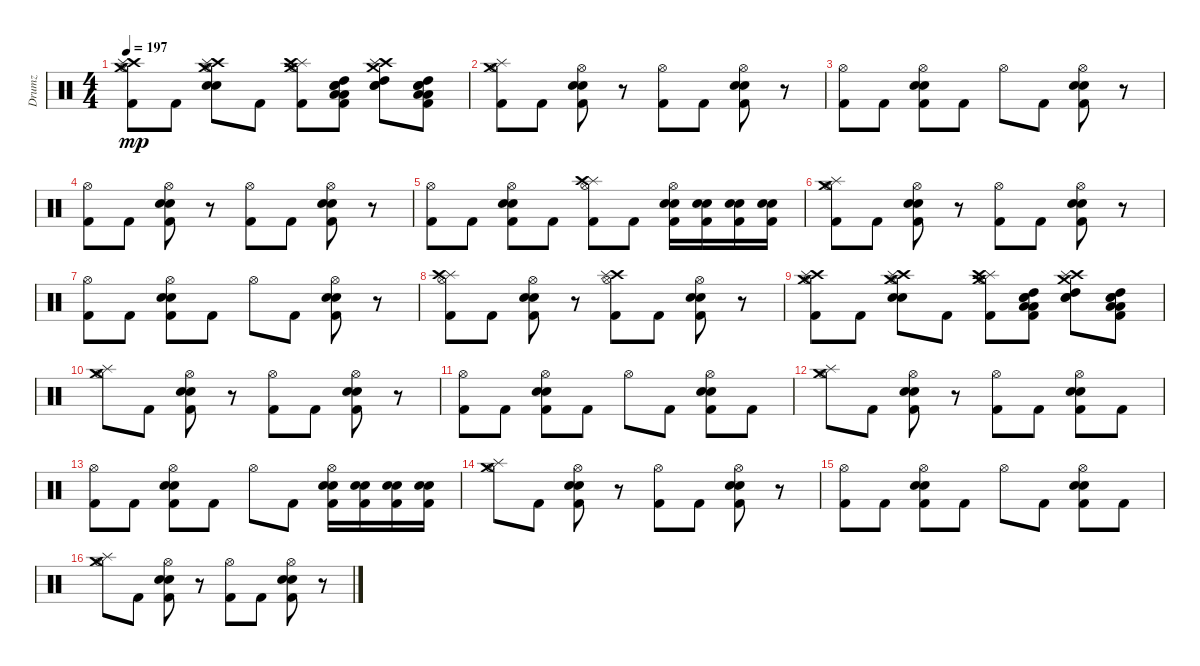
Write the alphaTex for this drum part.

\track ("Drumz" "Drumz") {instrument percussion}
\staff {score}
\articulation defaults
\ts (4 4)
\tempo 197
\clef neutral
\ks c
("Crash high (hit)" "Splash (hit)" "Crash medium (hit)" "Hi-Hat (open)" "Kick (hit) 2").8{dy mp} "Kick (hit) 2".8 ("Crash high (hit)" "Crash medium (hit)" "Splash (hit)" "Hi-Hat (open)" "Snare (hit) 2" "Electric Snare (hit)").8 "Kick (hit) 2".8 ("Kick (hit) 2" "Splash (hit)" "Crash high (hit)" "Crash medium (hit)" "Hi-Hat (open)").8 ("Snare (hit) 2" "Electric Snare (hit)" "Low Floor Tom (hit)" "High Tom (hit)" "Low Tom (hit)" "Kick (hit) 2").8 ("Crash high (hit)" "Crash medium (hit)" "Splash (hit)" "High Tom (hit)" "Snare (hit) 2" "Electric Snare (hit)").8 ("High Tom (hit)" "Low Floor Tom (hit)" "Electric Snare (hit)" "Snare (hit) 2" "Kick (hit) 2" "Low Tom (hit)").8 |
("Splash (hit)" "Crash medium (hit)" "Kick (hit) 2" "Hi-Hat (open)").8 "Kick (hit) 2".8 ("Kick (hit) 2" "Snare (hit) 2" "Electric Snare (hit)" "Hi-Hat (open)").8 r.8 ("Kick (hit) 2" "Hi-Hat (open)").8 "Kick (hit) 2".8 ("Kick (hit) 2" "Snare (hit) 2" "Electric Snare (hit)" "Hi-Hat (open)").8 r.8 |
("Hi-Hat (open)" "Kick (hit) 2").8 "Kick (hit) 2".8 ("Hi-Hat (open)" "Snare (hit) 2" "Electric Snare (hit)" "Kick (hit) 2").8 "Kick (hit) 2".8 "Hi-Hat (open)".8 "Kick (hit) 2".8 ("Hi-Hat (open)" "Snare (hit) 2" "Electric Snare (hit)" "Kick (hit) 2").8 r.8 |
("Kick (hit) 2" "Hi-Hat (open)").8 "Kick (hit) 2".8 ("Kick (hit) 2" "Snare (hit) 2" "Electric Snare (hit)" "Hi-Hat (open)").8 r.8 ("Kick (hit) 2" "Hi-Hat (open)").8 "Kick (hit) 2".8 ("Kick (hit) 2" "Snare (hit) 2" "Electric Snare (hit)" "Hi-Hat (open)").8 r.8 |
("Hi-Hat (open)" "Kick (hit) 2").8 "Kick (hit) 2".8 ("Hi-Hat (open)" "Snare (hit) 2" "Electric Snare (hit)" "Kick (hit) 2").8 "Kick (hit) 2".8 ("Kick (hit) 2" "Splash (hit)" "Crash high (hit)" "Hi-Hat (open)").8 "Kick (hit) 2".8 ("Kick (hit) 2" "Snare (hit) 2" "Electric Snare (hit)" "Hi-Hat (open)").16 ("Electric Snare (hit)" "Snare (hit) 2" "Kick (hit) 2").16 ("Snare (hit) 2" "Electric Snare (hit)" "Kick (hit) 2").16 ("Snare (hit) 2" "Electric Snare (hit)" "Kick (hit) 2").16 |
("Splash (hit)" "Crash medium (hit)" "Kick (hit) 2" "Hi-Hat (open)").8 "Kick (hit) 2".8 ("Kick (hit) 2" "Snare (hit) 2" "Electric Snare (hit)" "Hi-Hat (open)").8 r.8 ("Kick (hit) 2" "Hi-Hat (open)").8 "Kick (hit) 2".8 ("Kick (hit) 2" "Snare (hit) 2" "Electric Snare (hit)" "Hi-Hat (open)").8 r.8 |
("Hi-Hat (open)" "Kick (hit) 2").8 "Kick (hit) 2".8 ("Hi-Hat (open)" "Snare (hit) 2" "Electric Snare (hit)" "Kick (hit) 2").8 "Kick (hit) 2".8 "Hi-Hat (open)".8 "Kick (hit) 2".8 ("Hi-Hat (open)" "Snare (hit) 2" "Electric Snare (hit)" "Kick (hit) 2").8 r.8 |
("Splash (hit)" "Crash high (hit)" "Kick (hit) 2" "Hi-Hat (open)").8 "Kick (hit) 2".8 ("Kick (hit) 2" "Snare (hit) 2" "Electric Snare (hit)" "Hi-Hat (open)").8 r.8 ("Crash high (hit)" "Splash (hit)" "Kick (hit) 2" "Hi-Hat (open)").8 "Kick (hit) 2".8 ("Kick (hit) 2" "Snare (hit) 2" "Electric Snare (hit)" "Hi-Hat (open)").8 r.8 |
("Crash high (hit)" "Splash (hit)" "Crash medium (hit)" "Hi-Hat (open)" "Kick (hit) 2").8 "Kick (hit) 2".8 ("Crash high (hit)" "Crash medium (hit)" "Splash (hit)" "Hi-Hat (open)" "Snare (hit) 2" "Electric Snare (hit)").8 "Kick (hit) 2".8 ("Kick (hit) 2" "Splash (hit)" "Crash high (hit)" "Crash medium (hit)" "Hi-Hat (open)").8 ("Snare (hit) 2" "Electric Snare (hit)" "Low Floor Tom (hit)" "High Tom (hit)" "Low Tom (hit)" "Kick (hit) 2").8 ("Crash high (hit)" "Crash medium (hit)" "Splash (hit)" "High Tom (hit)" "Snare (hit) 2" "Electric Snare (hit)").8 ("High Tom (hit)" "Low Floor Tom (hit)" "Electric Snare (hit)" "Snare (hit) 2" "Kick (hit) 2" "Low Tom (hit)").8 |
("Splash (hit)" "Crash medium (hit)" "Hi-Hat (open)").8 "Kick (hit) 2".8 ("Kick (hit) 2" "Snare (hit) 2" "Electric Snare (hit)" "Hi-Hat (open)").8 r.8 ("Kick (hit) 2" "Hi-Hat (open)").8 "Kick (hit) 2".8 ("Kick (hit) 2" "Snare (hit) 2" "Electric Snare (hit)" "Hi-Hat (open)").8 r.8 |
("Hi-Hat (open)" "Kick (hit) 2").8 "Kick (hit) 2".8 ("Hi-Hat (open)" "Snare (hit) 2" "Electric Snare (hit)" "Kick (hit) 2").8 "Kick (hit) 2".8 "Hi-Hat (open)".8 "Kick (hit) 2".8 ("Hi-Hat (open)" "Snare (hit) 2" "Electric Snare (hit)" "Kick (hit) 2").8 "Kick (hit) 2".8 |
("Splash (hit)" "Crash medium (hit)" "Hi-Hat (open)").8 "Kick (hit) 2".8 ("Kick (hit) 2" "Snare (hit) 2" "Electric Snare (hit)" "Hi-Hat (open)").8 r.8 ("Kick (hit) 2" "Hi-Hat (open)").8 "Kick (hit) 2".8 ("Kick (hit) 2" "Snare (hit) 2" "Electric Snare (hit)" "Hi-Hat (open)").8 "Kick (hit) 2".8 |
("Hi-Hat (open)" "Kick (hit) 2").8 "Kick (hit) 2".8 ("Hi-Hat (open)" "Snare (hit) 2" "Electric Snare (hit)" "Kick (hit) 2").8 "Kick (hit) 2".8 "Hi-Hat (open)".8 "Kick (hit) 2".8 ("Hi-Hat (open)" "Snare (hit) 2" "Electric Snare (hit)" "Kick (hit) 2").16 ("Kick (hit) 2" "Snare (hit) 2" "Electric Snare (hit)").16 ("Snare (hit) 2" "Electric Snare (hit)" "Kick (hit) 2").16 ("Snare (hit) 2" "Electric Snare (hit)" "Kick (hit) 2").16 |
("Splash (hit)" "Crash medium (hit)" "Hi-Hat (open)").8 "Kick (hit) 2".8 ("Kick (hit) 2" "Snare (hit) 2" "Electric Snare (hit)" "Hi-Hat (open)").8 r.8 ("Kick (hit) 2" "Hi-Hat (open)").8 "Kick (hit) 2".8 ("Kick (hit) 2" "Snare (hit) 2" "Electric Snare (hit)" "Hi-Hat (open)").8 r.8 |
("Kick (hit) 2" "Hi-Hat (open)").8 "Kick (hit) 2".8 ("Hi-Hat (open)" "Snare (hit) 2" "Electric Snare (hit)" "Kick (hit) 2").8 "Kick (hit) 2".8 "Hi-Hat (open)".8 "Kick (hit) 2".8 ("Hi-Hat (open)" "Snare (hit) 2" "Electric Snare (hit)" "Kick (hit) 2").8 "Kick (hit) 2".8 |
("Splash (hit)" "Crash medium (hit)" "Hi-Hat (open)").8 "Kick (hit) 2".8 ("Kick (hit) 2" "Snare (hit) 2" "Electric Snare (hit)" "Hi-Hat (open)").8 r.8 ("Kick (hit) 2" "Hi-Hat (open)").8 "Kick (hit) 2".8 ("Kick (hit) 2" "Snare (hit) 2" "Electric Snare (hit)" "Hi-Hat (open)").8 r.8
